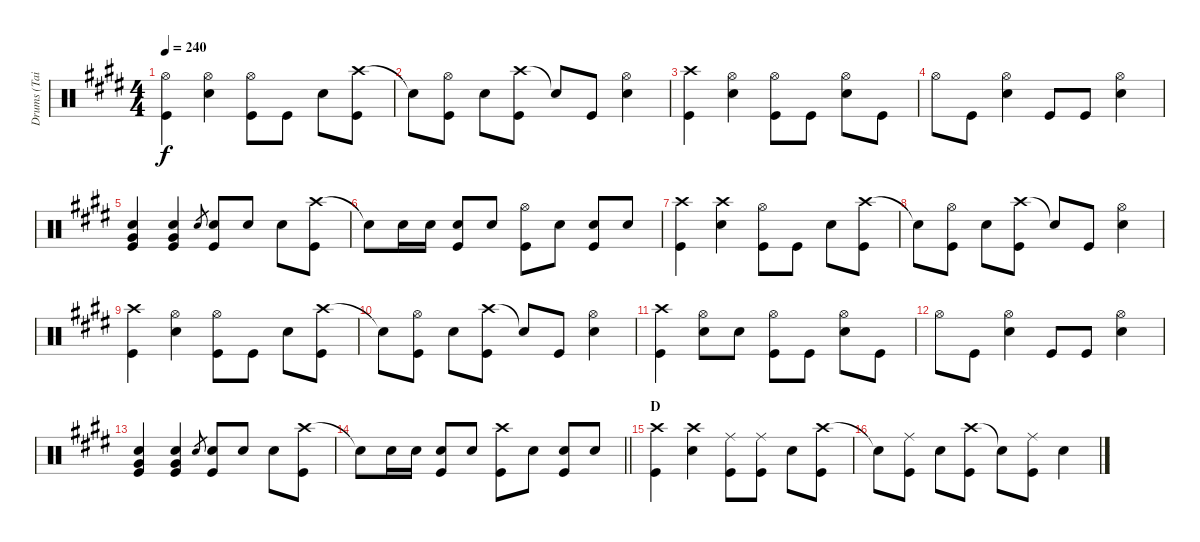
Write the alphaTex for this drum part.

\track ("Drums (Tainaka Ritsu)" "Drums (Tai") {instrument percussion}
\staff {score}
\articulation defaults
\ts (4 4)
\tempo 240
\clef neutral
\ks e
("Hi-Hat (open)" "Kick (hit)").4{dy f} ("Hi-Hat (open)" "Snare (hit) 2").4 ("Hi-Hat (open)" "Kick (hit)").8 "Kick (hit)".8 "Snare (hit) 2".8 ("Crash high (hit)" "Kick (hit)").8 |
"Snare (hit)"{t}.8 ("Hi-Hat (open)" "Kick (hit)").8 "Snare (hit) 2".8 ("Crash high (hit)" "Kick (hit)").8 "Snare (hit)"{t}.8 "Kick (hit)".8 ("Hi-Hat (open)" "Snare (hit) 2").4 |
("Crash high (hit)" "Kick (hit)").4 ("Hi-Hat (open)" "Snare (hit) 2").4 ("Hi-Hat (open)" "Kick (hit)").8 "Kick (hit)".8 ("Hi-Hat (open)" "Snare (hit) 2").8 "Kick (hit)".8 |
"Hi-Hat (open)".8 "Kick (hit)".8 ("Hi-Hat (open)" "Snare (hit) 2").4 "Kick (hit)".8 "Kick (hit)".8 ("Hi-Hat (open)" "Snare (hit) 2").4 |
("Snare (hit) 2" "Very Low Tom (hit)" "Kick (hit)").4 ("Snare (hit) 2" "Very Low Tom (hit)" "Kick (hit)").4 "Snare (hit) 2".8{gr} ("Snare (hit) 2" "Kick (hit)").8 "Snare (hit) 2".8 "Snare (hit) 2".8 ("Crash high (hit)" "Kick (hit)").8 |
"Snare (hit)"{t}.8 "Snare (hit) 2".16 "Snare (hit) 2".16 ("Snare (hit) 2" "Kick (hit)").8 "Snare (hit) 2".8 ("Hi-Hat (open)" "Kick (hit)").8 "Snare (hit) 2".8 ("Snare (hit) 2" "Kick (hit)").8 "Snare (hit) 2".8 |
("Crash high (hit)" "Kick (hit)").4 ("Crash high (hit)" "Snare (hit) 2").4 ("Hi-Hat (open)" "Kick (hit)").8 "Kick (hit)".8 "Snare (hit) 2".8 ("Crash high (hit)" "Kick (hit)").8 |
"Snare (hit)"{t}.8 ("Hi-Hat (open)" "Kick (hit)").8 "Snare (hit) 2".8 ("Crash high (hit)" "Kick (hit)").8 "Snare (hit)"{t}.8 "Kick (hit)".8 ("Hi-Hat (open)" "Snare (hit) 2").4 |
("Crash high (hit)" "Kick (hit)").4 ("Hi-Hat (open)" "Snare (hit) 2").4 ("Hi-Hat (open)" "Kick (hit)").8 "Kick (hit)".8 "Snare (hit) 2".8 ("Crash high (hit)" "Kick (hit)").8 |
"Snare (hit)"{t}.8 ("Hi-Hat (open)" "Kick (hit)").8 "Snare (hit) 2".8 ("Crash high (hit)" "Kick (hit)").8 "Snare (hit)"{t}.8 "Kick (hit)".8 ("Hi-Hat (open)" "Snare (hit) 2").4 |
("Crash high (hit)" "Kick (hit)").4 ("Hi-Hat (open)" "Snare (hit) 2").8 "Snare (hit) 2".8 ("Hi-Hat (open)" "Kick (hit)").8 "Kick (hit)".8 ("Hi-Hat (open)" "Snare (hit) 2").8 "Kick (hit)".8 |
"Hi-Hat (open)".8 "Kick (hit)".8 ("Hi-Hat (open)" "Snare (hit) 2").4 "Kick (hit)".8 "Kick (hit)".8 ("Hi-Hat (open)" "Snare (hit) 2").4 |
("Snare (hit) 2" "Very Low Tom (hit)" "Kick (hit)").4 ("Snare (hit) 2" "Very Low Tom (hit)" "Kick (hit)").4 "Snare (hit) 2".8{gr} ("Snare (hit) 2" "Kick (hit)").8 "Snare (hit) 2".8 "Snare (hit) 2".8 ("Crash high (hit)" "Kick (hit)").8 |
\barLineRight lightlight "Snare (hit)"{t}.8 "Snare (hit) 2".16 "Snare (hit) 2".16
("Snare (hit) 2" "Kick (hit)").8 "Snare (hit) 2".8 ("Crash high (hit)" "Kick (hit)").8 "Snare (hit) 2".8 ("Snare (hit) 2" "Kick (hit)").8 "Snare (hit) 2".8 |
\section ("" "D")
("Crash high (hit)" "Kick (hit)").4 ("Crash high (hit)" "Snare (hit) 2").4 ("Ride (middle)" "Kick (hit)").8 ("Ride (middle)" "Kick (hit)").8 "Snare (hit) 2".8 ("Crash high (hit)" "Kick (hit)").8 |
"Snare (hit)"{t}.8 ("Ride (middle)" "Kick (hit)").8 "Snare (hit) 2".8 ("Crash high (hit)" "Kick (hit)").8 "Snare (hit)"{t}.8 ("Ride (middle)" "Kick (hit)").8 "Snare (hit) 2".4
